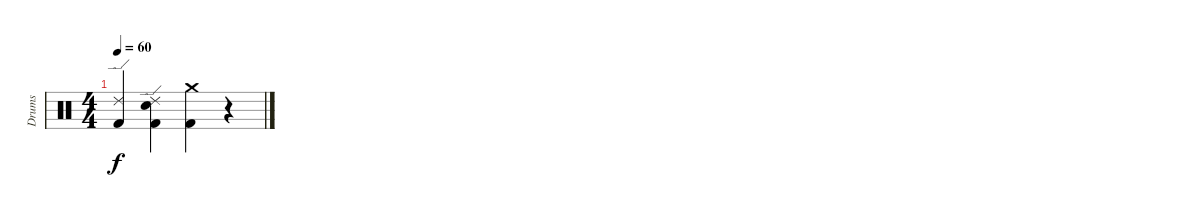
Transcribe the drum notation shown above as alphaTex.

\track ("Drums" "Drums") {instrument percussion}
\staff {score}
\articulation defaults
\ts (4 4)
\tempo 60
\clef neutral
\ks c
("Ride (edge) 2" "Kick (hit) 2").4{dy f} ("Ride (edge) 2" "Electric Snare (hit)" "Kick (hit) 2").4 ("Crash medium (hit)" "Kick (hit) 2").4 r.4
